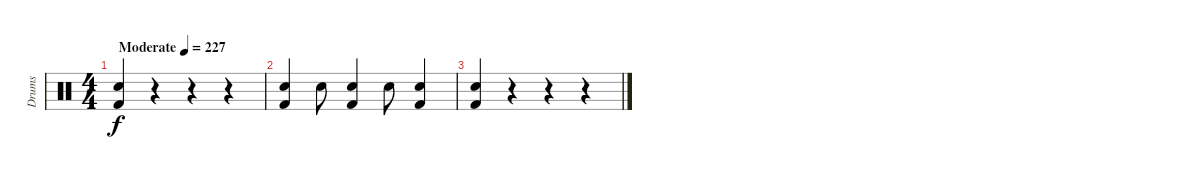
\track ("Drums" "Drums") {instrument percussion}
\staff {score}
\articulation defaults
\ts (4 4)
\tempo (227 "Moderate")
\clef neutral
\ks c
("Kick (hit) 2" "Snare (hit) 2").4{dy f} r.4 r.4 r.4 |
("Kick (hit) 2" "Snare (hit) 2").4 "Snare (hit) 2".8 ("Kick (hit) 2" "Snare (hit) 2").4 "Snare (hit) 2".8 ("Kick (hit) 2" "Snare (hit) 2").4 |
("Kick (hit) 2" "Snare (hit) 2").4 r.4 r.4 r.4
